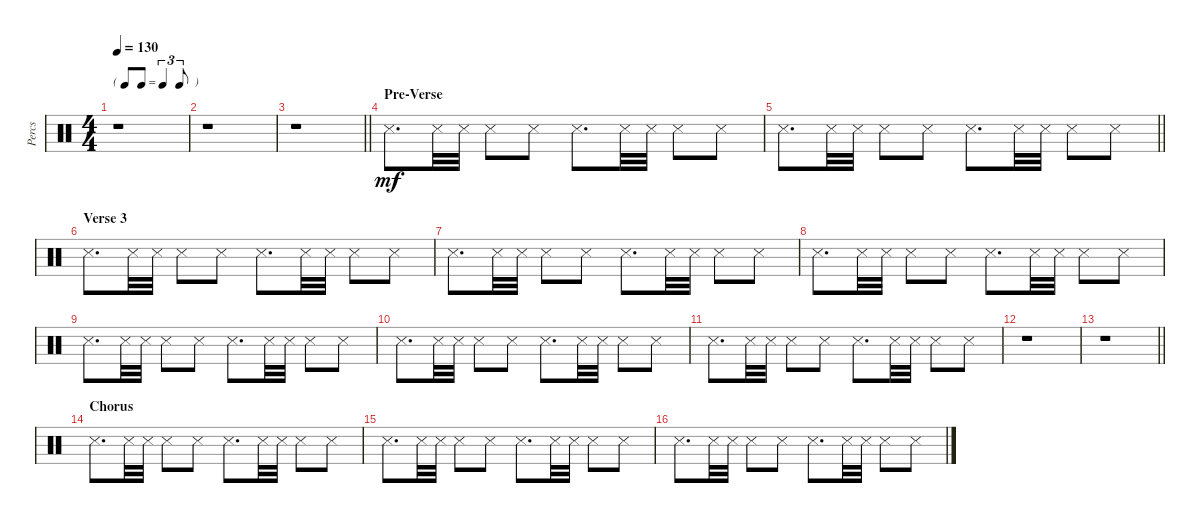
\track ("Percs" "Percs") {instrument percussion}
\staff {score}
\articulation defaults
\ts (4 4)
\tf triplet8th
\tempo 130
\clef neutral
\ks c
r.1{dy mf} |
r.1 |
\barLineRight lightlight
r.1 |
\section ("" "Pre-Verse")
"Snare (side stick) 3".8{d} "Snare (side stick) 3".32 "Snare (side stick) 3".32 "Snare (side stick) 3".8 "Snare (side stick) 3".8 "Snare (side stick) 3".8{d} "Snare (side stick) 3".32 "Snare (side stick) 3".32 "Snare (side stick) 3".8 "Snare (side stick) 3".8 |
\barLineRight lightlight "Snare (side stick) 3".8{d} "Snare (side stick) 3".32 "Snare (side stick) 3".32 "Snare (side stick) 3".8 "Snare (side stick) 3".8 "Snare (side stick) 3".8{d} "Snare (side stick) 3".32 "Snare (side stick) 3".32 "Snare (side stick) 3".8 "Snare (side stick) 3".8
|
\section ("" "Verse 3")
"Snare (side stick) 3".8{d} "Snare (side stick) 3".32 "Snare (side stick) 3".32 "Snare (side stick) 3".8 "Snare (side stick) 3".8 "Snare (side stick) 3".8{d} "Snare (side stick) 3".32 "Snare (side stick) 3".32 "Snare (side stick) 3".8 "Snare (side stick) 3".8 |
"Snare (side stick) 3".8{d} "Snare (side stick) 3".32 "Snare (side stick) 3".32 "Snare (side stick) 3".8 "Snare (side stick) 3".8 "Snare (side stick) 3".8{d} "Snare (side stick) 3".32 "Snare (side stick) 3".32 "Snare (side stick) 3".8 "Snare (side stick) 3".8 |
"Snare (side stick) 3".8{d} "Snare (side stick) 3".32 "Snare (side stick) 3".32 "Snare (side stick) 3".8 "Snare (side stick) 3".8 "Snare (side stick) 3".8{d} "Snare (side stick) 3".32 "Snare (side stick) 3".32 "Snare (side stick) 3".8 "Snare (side stick) 3".8 |
"Snare (side stick) 3".8{d} "Snare (side stick) 3".32 "Snare (side stick) 3".32 "Snare (side stick) 3".8 "Snare (side stick) 3".8 "Snare (side stick) 3".8{d} "Snare (side stick) 3".32 "Snare (side stick) 3".32 "Snare (side stick) 3".8 "Snare (side stick) 3".8 |
"Snare (side stick) 3".8{d} "Snare (side stick) 3".32 "Snare (side stick) 3".32 "Snare (side stick) 3".8 "Snare (side stick) 3".8 "Snare (side stick) 3".8{d} "Snare (side stick) 3".32 "Snare (side stick) 3".32 "Snare (side stick) 3".8 "Snare (side stick) 3".8 |
"Snare (side stick) 3".8{d} "Snare (side stick) 3".32 "Snare (side stick) 3".32 "Snare (side stick) 3".8 "Snare (side stick) 3".8 "Snare (side stick) 3".8{d} "Snare (side stick) 3".32 "Snare (side stick) 3".32 "Snare (side stick) 3".8 "Snare (side stick) 3".8 |
r.1 |
\barLineRight lightlight
r.1 |
\section ("" "Chorus")
"Snare (side stick) 3".8{d} "Snare (side stick) 3".32 "Snare (side stick) 3".32 "Snare (side stick) 3".8 "Snare (side stick) 3".8 "Snare (side stick) 3".8{d} "Snare (side stick) 3".32 "Snare (side stick) 3".32 "Snare (side stick) 3".8 "Snare (side stick) 3".8 |
"Snare (side stick) 3".8{d} "Snare (side stick) 3".32 "Snare (side stick) 3".32 "Snare (side stick) 3".8 "Snare (side stick) 3".8 "Snare (side stick) 3".8{d} "Snare (side stick) 3".32 "Snare (side stick) 3".32 "Snare (side stick) 3".8 "Snare (side stick) 3".8 |
"Snare (side stick) 3".8{d} "Snare (side stick) 3".32 "Snare (side stick) 3".32 "Snare (side stick) 3".8 "Snare (side stick) 3".8 "Snare (side stick) 3".8{d} "Snare (side stick) 3".32 "Snare (side stick) 3".32 "Snare (side stick) 3".8 "Snare (side stick) 3".8
